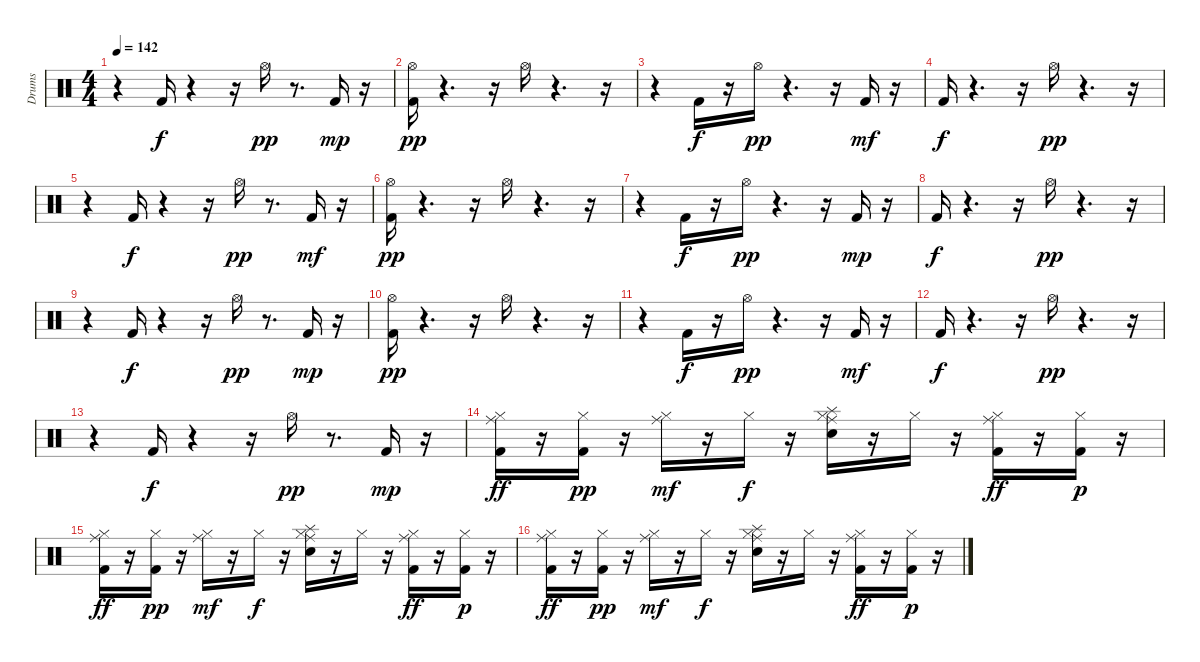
\track ("Drums" "Drums") {instrument percussion}
\staff {score}
\articulation defaults
\ts (4 4)
\tempo 142
\clef neutral
\ks c
r.4{dy pp} "Kick (hit) 2".16{dy f} r.4 r.16 "Hi-Hat (open)".16{dy pp} r.8{d} "Kick (hit) 2".16{dy mp} r.16 |
("Kick (hit) 2" "Hi-Hat (open)").16{dy pp} r.4{d} r.16 "Hi-Hat (open)".16 r.4{d} r.16 |
r.4 "Kick (hit) 2".16{dy f} r.16 "Hi-Hat (open)".16{dy pp} r.4{d} r.16 "Kick (hit) 2".16{dy mf} r.16 |
"Kick (hit) 2".16{dy f} r.4{d} r.16 "Hi-Hat (open)".16{dy pp} r.4{d} r.16 |
r.4 "Kick (hit) 2".16{dy f} r.4 r.16 "Hi-Hat (open)".16{dy pp} r.8{d} "Kick (hit) 2".16{dy mf} r.16 |
("Kick (hit) 2" "Hi-Hat (open)").16{dy pp} r.4{d} r.16 "Hi-Hat (open)".16 r.4{d} r.16 |
r.4 "Kick (hit) 2".16{dy f} r.16 "Hi-Hat (open)".16{dy pp} r.4{d} r.16 "Kick (hit) 2".16{dy mp} r.16 |
"Kick (hit) 2".16{dy f} r.4{d} r.16 "Hi-Hat (open)".16{dy pp} r.4{d} r.16 |
r.4 "Kick (hit) 2".16{dy f} r.4 r.16 "Hi-Hat (open)".16{dy pp} r.8{d} "Kick (hit) 2".16{dy mp} r.16 |
("Kick (hit) 2" "Hi-Hat (open)").16{dy pp} r.4{d} r.16 "Hi-Hat (open)".16 r.4{d} r.16 |
r.4 "Kick (hit) 2".16{dy f} r.16 "Hi-Hat (open)".16{dy pp} r.4{d} r.16 "Kick (hit) 2".16{dy mf} r.16 |
"Kick (hit) 2".16{dy f} r.4{d} r.16 "Hi-Hat (open)".16{dy pp} r.4{d} r.16 |
r.4 "Kick (hit) 2".16{dy f} r.4 r.16 "Hi-Hat (open)".16{dy pp} r.8{d} "Kick (hit) 2".16{dy mp} r.16 |
("Ride (middle)" "Hi-Hat (closed)" "Kick (hit) 2").16{dy ff} r.16 ("Hi-Hat (closed)" "Kick (hit) 2").16{dy pp} r.16 ("Ride (middle)" "Hi-Hat (closed)").16{dy mf} r.16 "Hi-Hat (closed)".16{dy f} r.16 ("Ride (middle)" "Hi-Hat (closed)" "Splash (hit)" "Snare (hit) 2").16 r.16 "Hi-Hat (closed)".16 r.16 ("Ride (middle)" "Hi-Hat (closed)" "Kick (hit) 2").16{dy ff} r.16 ("Hi-Hat (closed)" "Kick (hit) 2").16{dy p} r.16 |
("Ride (middle)" "Hi-Hat (closed)" "Kick (hit) 2").16{dy ff} r.16 ("Hi-Hat (closed)" "Kick (hit) 2").16{dy pp} r.16 ("Ride (middle)" "Hi-Hat (closed)").16{dy mf} r.16 "Hi-Hat (closed)".16{dy f} r.16 ("Ride (middle)" "Hi-Hat (closed)" "Splash (hit)" "Snare (hit) 2").16 r.16 "Hi-Hat (closed)".16 r.16 ("Ride (middle)" "Hi-Hat (closed)" "Kick (hit) 2").16{dy ff} r.16 ("Hi-Hat (closed)" "Kick (hit) 2").16{dy p} r.16 |
("Ride (middle)" "Hi-Hat (closed)" "Kick (hit) 2").16{dy ff} r.16 ("Hi-Hat (closed)" "Kick (hit) 2").16{dy pp} r.16 ("Ride (middle)" "Hi-Hat (closed)").16{dy mf} r.16 "Hi-Hat (closed)".16{dy f} r.16 ("Ride (middle)" "Hi-Hat (closed)" "Splash (hit)" "Snare (hit) 2").16 r.16 "Hi-Hat (closed)".16 r.16 ("Ride (middle)" "Hi-Hat (closed)" "Kick (hit) 2").16{dy ff} r.16 ("Hi-Hat (closed)" "Kick (hit) 2").16{dy p} r.16
